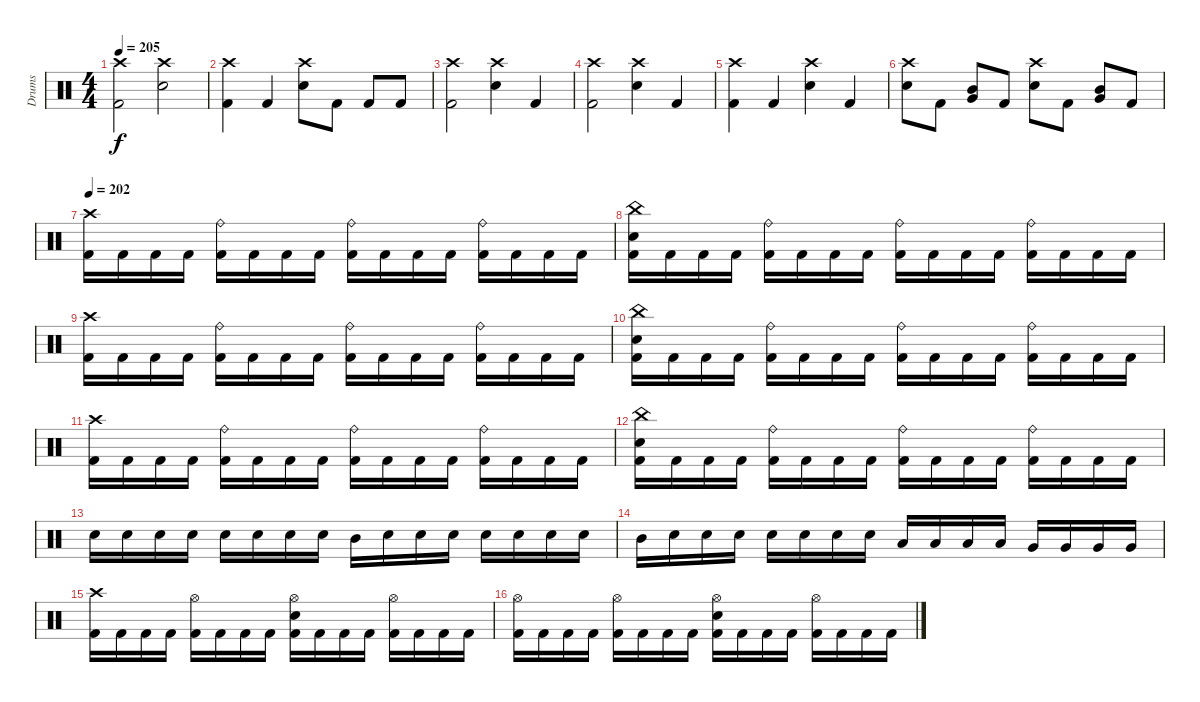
\track ("Drums" "Drums") {instrument percussion}
\staff {score}
\articulation defaults
\ts (4 4)
\tempo 205
\clef neutral
\ks c
("Crash high (hit)" "Kick (hit) 2").2{dy f} ("Crash high (hit)" "Snare (hit) 2").2 |
("Crash high (hit)" "Kick (hit) 2").4 "Kick (hit) 2".4 ("Crash high (hit)" "Snare (hit) 2").8 "Kick (hit) 2".8 "Kick (hit) 2".8 "Kick (hit) 2".8 |
("Crash high (hit)" "Kick (hit) 2").2 ("Crash high (hit)" "Snare (hit) 2").4 "Kick (hit) 2".4 |
("Crash high (hit)" "Kick (hit) 2").2 ("Crash high (hit)" "Snare (hit) 2").4 "Kick (hit) 2".4 |
("Crash high (hit)" "Kick (hit) 2").4 "Kick (hit) 2".4 ("Crash high (hit)" "Snare (hit) 2").4 "Kick (hit) 2".4 |
("Crash high (hit)" "Snare (hit) 2").8 "Kick (hit) 2".8 ("Mid Tom (hit)" "Very Low Tom (hit)").8 "Kick (hit) 2".8 ("Crash high (hit)" "Snare (hit) 2").8 "Kick (hit) 2".8 ("Mid Tom (hit)" "Very Low Tom (hit)").8 "Kick (hit) 2".8 |
\tempo 202
("Crash high (hit)" "Kick (hit) 2").16 "Kick (hit) 2".16 "Kick (hit) 2".16 "Kick (hit) 2".16 ("Ride (bell)" "Kick (hit) 2").16 "Kick (hit) 2".16 "Kick (hit) 2".16 "Kick (hit) 2".16 ("Ride (bell)" "Kick (hit) 2").16 "Kick (hit) 2".16 "Kick (hit) 2".16 "Kick (hit) 2".16 ("Ride (bell)" "Kick (hit) 2").16 "Kick (hit) 2".16 "Kick (hit) 2".16 "Kick (hit) 2".16 |
("China (hit)" "Snare (hit) 2" "Kick (hit) 2").16 "Kick (hit) 2".16 "Kick (hit) 2".16 "Kick (hit) 2".16 ("Ride (bell)" "Kick (hit) 2").16 "Kick (hit) 2".16 "Kick (hit) 2".16 "Kick (hit) 2".16 ("Ride (bell)" "Kick (hit) 2").16 "Kick (hit) 2".16 "Kick (hit) 2".16 "Kick (hit) 2".16 ("Ride (bell)" "Kick (hit) 2").16 "Kick (hit) 2".16 "Kick (hit) 2".16 "Kick (hit) 2".16 |
("Crash high (hit)" "Kick (hit) 2").16 "Kick (hit) 2".16 "Kick (hit) 2".16 "Kick (hit) 2".16 ("Ride (bell)" "Kick (hit) 2").16 "Kick (hit) 2".16 "Kick (hit) 2".16 "Kick (hit) 2".16 ("Ride (bell)" "Kick (hit) 2").16 "Kick (hit) 2".16 "Kick (hit) 2".16 "Kick (hit) 2".16 ("Ride (bell)" "Kick (hit) 2").16 "Kick (hit) 2".16 "Kick (hit) 2".16 "Kick (hit) 2".16 |
("China (hit)" "Snare (hit) 2" "Kick (hit) 2").16 "Kick (hit) 2".16 "Kick (hit) 2".16 "Kick (hit) 2".16 ("Ride (bell)" "Kick (hit) 2").16 "Kick (hit) 2".16 "Kick (hit) 2".16 "Kick (hit) 2".16 ("Ride (bell)" "Kick (hit) 2").16 "Kick (hit) 2".16 "Kick (hit) 2".16 "Kick (hit) 2".16 ("Ride (bell)" "Kick (hit) 2").16 "Kick (hit) 2".16 "Kick (hit) 2".16 "Kick (hit) 2".16 |
("Crash high (hit)" "Kick (hit) 2").16 "Kick (hit) 2".16 "Kick (hit) 2".16 "Kick (hit) 2".16 ("Ride (bell)" "Kick (hit) 2").16 "Kick (hit) 2".16 "Kick (hit) 2".16 "Kick (hit) 2".16 ("Ride (bell)" "Kick (hit) 2").16 "Kick (hit) 2".16 "Kick (hit) 2".16 "Kick (hit) 2".16 ("Ride (bell)" "Kick (hit) 2").16 "Kick (hit) 2".16 "Kick (hit) 2".16 "Kick (hit) 2".16 |
("China (hit)" "Snare (hit) 2" "Kick (hit) 2").16 "Kick (hit) 2".16 "Kick (hit) 2".16 "Kick (hit) 2".16 ("Ride (bell)" "Kick (hit) 2").16 "Kick (hit) 2".16 "Kick (hit) 2".16 "Kick (hit) 2".16 ("Ride (bell)" "Kick (hit) 2").16 "Kick (hit) 2".16 "Kick (hit) 2".16 "Kick (hit) 2".16 ("Ride (bell)" "Kick (hit) 2").16 "Kick (hit) 2".16 "Kick (hit) 2".16 "Kick (hit) 2".16 |
"Snare (hit) 2".16 "Snare (hit) 2".16 "Snare (hit) 2".16 "Snare (hit) 2".16 "Snare (hit) 2".16 "Snare (hit) 2".16 "Snare (hit) 2".16 "Snare (hit) 2".16 "Mid Tom (hit)".16 "Snare (hit) 2".16 "Snare (hit) 2".16 "Snare (hit) 2".16 "Snare (hit) 2".16 "Snare (hit) 2".16 "Snare (hit) 2".16 "Snare (hit) 2".16 |
"Mid Tom (hit)".16 "Snare (hit) 2".16 "Snare (hit) 2".16 "Snare (hit) 2".16 "Snare (hit) 2".16 "Snare (hit) 2".16 "Snare (hit) 2".16 "Snare (hit) 2".16 "Low Tom (hit)".16 "Low Tom (hit)".16 "Low Tom (hit)".16 "Low Tom (hit)".16 "Very Low Tom (hit)".16 "Very Low Tom (hit)".16 "Very Low Tom (hit)".16 "Very Low Tom (hit)".16 |
("Crash high (hit)" "Kick (hit) 2").16 "Kick (hit) 2".16 "Kick (hit) 2".16 "Kick (hit) 2".16 ("Hi-Hat (open)" "Kick (hit) 2").16 "Kick (hit) 2".16 "Kick (hit) 2".16 "Kick (hit) 2".16 ("Hi-Hat (open)" "Snare (hit) 2" "Kick (hit) 2").16 "Kick (hit) 2".16 "Kick (hit) 2".16 "Kick (hit) 2".16 ("Hi-Hat (open)" "Kick (hit) 2").16 "Kick (hit) 2".16 "Kick (hit) 2".16 "Kick (hit) 2".16 |
("Hi-Hat (open)" "Kick (hit) 2").16 "Kick (hit) 2".16 "Kick (hit) 2".16 "Kick (hit) 2".16 ("Hi-Hat (open)" "Kick (hit) 2").16 "Kick (hit) 2".16 "Kick (hit) 2".16 "Kick (hit) 2".16 ("Hi-Hat (open)" "Snare (hit) 2" "Kick (hit) 2").16 "Kick (hit) 2".16 "Kick (hit) 2".16 "Kick (hit) 2".16 ("Hi-Hat (open)" "Kick (hit) 2").16 "Kick (hit) 2".16 "Kick (hit) 2".16 "Kick (hit) 2".16
